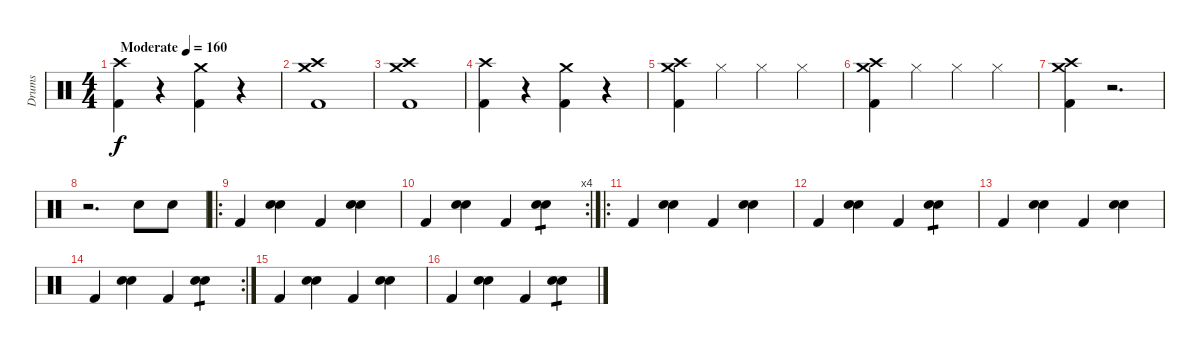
\track ("Drums" "Drums") {instrument percussion}
\staff {score}
\articulation defaults
\ts (4 4)
\tempo (160 "Moderate")
\clef neutral
\ks c
("Kick (hit) 2" "Crash high (hit)").4{dy f} r.4 ("Kick (hit) 2" "Crash medium (hit)").4 r.4 |
("Kick (hit) 2" "Crash high (hit)" "Crash medium (hit)").1 |
("Kick (hit) 2" "Crash high (hit)" "Crash medium (hit)").1 |
("Kick (hit) 2" "Crash high (hit)").4 r.4 ("Kick (hit) 2" "Crash medium (hit)").4 r.4 |
("Kick (hit) 2" "Crash high (hit)" "Crash medium (hit)").4 "Hi-Hat (closed)".4 "Hi-Hat (closed)".4 "Hi-Hat (closed)".4 |
("Kick (hit) 2" "Crash high (hit)" "Crash medium (hit)").4 "Hi-Hat (closed)".4 "Hi-Hat (closed)".4 "Hi-Hat (closed)".4 |
("Kick (hit) 2" "Crash high (hit)" "Crash medium (hit)").4 r.2{d} |
r.2{d} "Electric Snare (hit)".8 "Snare (hit) 2".8 |
\ro "Kick (hit) 2".4
("Snare (hit) 2" "Electric Snare (hit)").4 "Kick (hit) 2".4 ("Snare (hit) 2" "Electric Snare (hit)").4 |
\rc 4 "Kick (hit) 2".4
("Snare (hit) 2" "Electric Snare (hit)").4 "Kick (hit) 2".4 ("Snare (hit) 2" "Electric Snare (hit)").4{tp 1} |
\ro "Kick (hit) 2".4
("Snare (hit) 2" "Electric Snare (hit)").4 "Kick (hit) 2".4 ("Snare (hit) 2" "Electric Snare (hit)").4 |
"Kick (hit) 2".4 ("Snare (hit) 2" "Electric Snare (hit)").4 "Kick (hit) 2".4 ("Snare (hit) 2" "Electric Snare (hit)").4{tp 1} |
"Kick (hit) 2".4 ("Snare (hit) 2" "Electric Snare (hit)").4 "Kick (hit) 2".4 ("Snare (hit) 2" "Electric Snare (hit)").4 |
\rc 2 "Kick (hit) 2".4
("Snare (hit) 2" "Electric Snare (hit)").4 "Kick (hit) 2".4 ("Snare (hit) 2" "Electric Snare (hit)").4{tp 1} |
"Kick (hit) 2".4 ("Snare (hit) 2" "Electric Snare (hit)").4 "Kick (hit) 2".4 ("Snare (hit) 2" "Electric Snare (hit)").4 |
"Kick (hit) 2".4 ("Snare (hit) 2" "Electric Snare (hit)").4 "Kick (hit) 2".4 ("Snare (hit) 2" "Electric Snare (hit)").4{tp 1}
